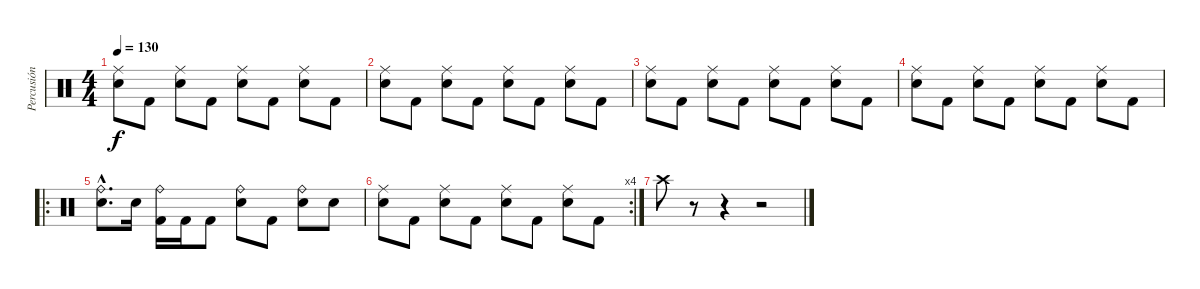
\track ("Percusión" "Percusión") {instrument percussion}
\staff {score}
\articulation defaults
\ts (4 4)
\tempo 130
\clef neutral
\ks c
("Ride (middle)" "Electric Snare (hit)").8{dy f} "Kick (hit) 2".8 ("Ride (middle)" "Electric Snare (hit)").8 "Kick (hit) 2".8 ("Ride (middle)" "Electric Snare (hit)").8 "Kick (hit) 2".8 ("Ride (middle)" "Electric Snare (hit)").8 "Kick (hit) 2".8 |
("Ride (middle)" "Electric Snare (hit)").8 "Kick (hit) 2".8 ("Ride (middle)" "Electric Snare (hit)").8 "Kick (hit) 2".8 ("Ride (middle)" "Electric Snare (hit)").8 "Kick (hit) 2".8 ("Ride (middle)" "Electric Snare (hit)").8 "Kick (hit) 2".8 |
("Ride (middle)" "Electric Snare (hit)").8 "Kick (hit) 2".8 ("Ride (middle)" "Electric Snare (hit)").8 "Kick (hit) 2".8 ("Ride (middle)" "Electric Snare (hit)").8 "Kick (hit) 2".8 ("Ride (middle)" "Electric Snare (hit)").8 "Kick (hit) 2".8 |
("Ride (middle)" "Electric Snare (hit)").8 "Kick (hit) 2".8 ("Ride (middle)" "Electric Snare (hit)").8 "Kick (hit) 2".8 ("Ride (middle)" "Electric Snare (hit)").8 "Kick (hit) 2".8 ("Ride (middle)" "Electric Snare (hit)").8 "Kick (hit) 2".8 |
\ro
("Ride (bell)"{hac} "Electric Snare (hit)"{hac}).8{d} "Electric Snare (hit)".16 ("Ride (bell)" "Kick (hit) 2").16 "Kick (hit) 2".16 "Kick (hit) 2".8 ("Ride (bell)" "Electric Snare (hit)").8 "Kick (hit) 2".8 ("Ride (bell)" "Electric Snare (hit)").8 "Electric Snare (hit)".8 |
\rc 4
("Ride (middle)" "Electric Snare (hit)").8 "Kick (hit) 2".8 ("Ride (middle)" "Electric Snare (hit)").8 "Kick (hit) 2".8 ("Ride (middle)" "Electric Snare (hit)").8 "Kick (hit) 2".8 ("Ride (middle)" "Electric Snare (hit)").8 "Kick (hit) 2".8 |
"Crash high (hit)".8 r.8 r.4 r.2
